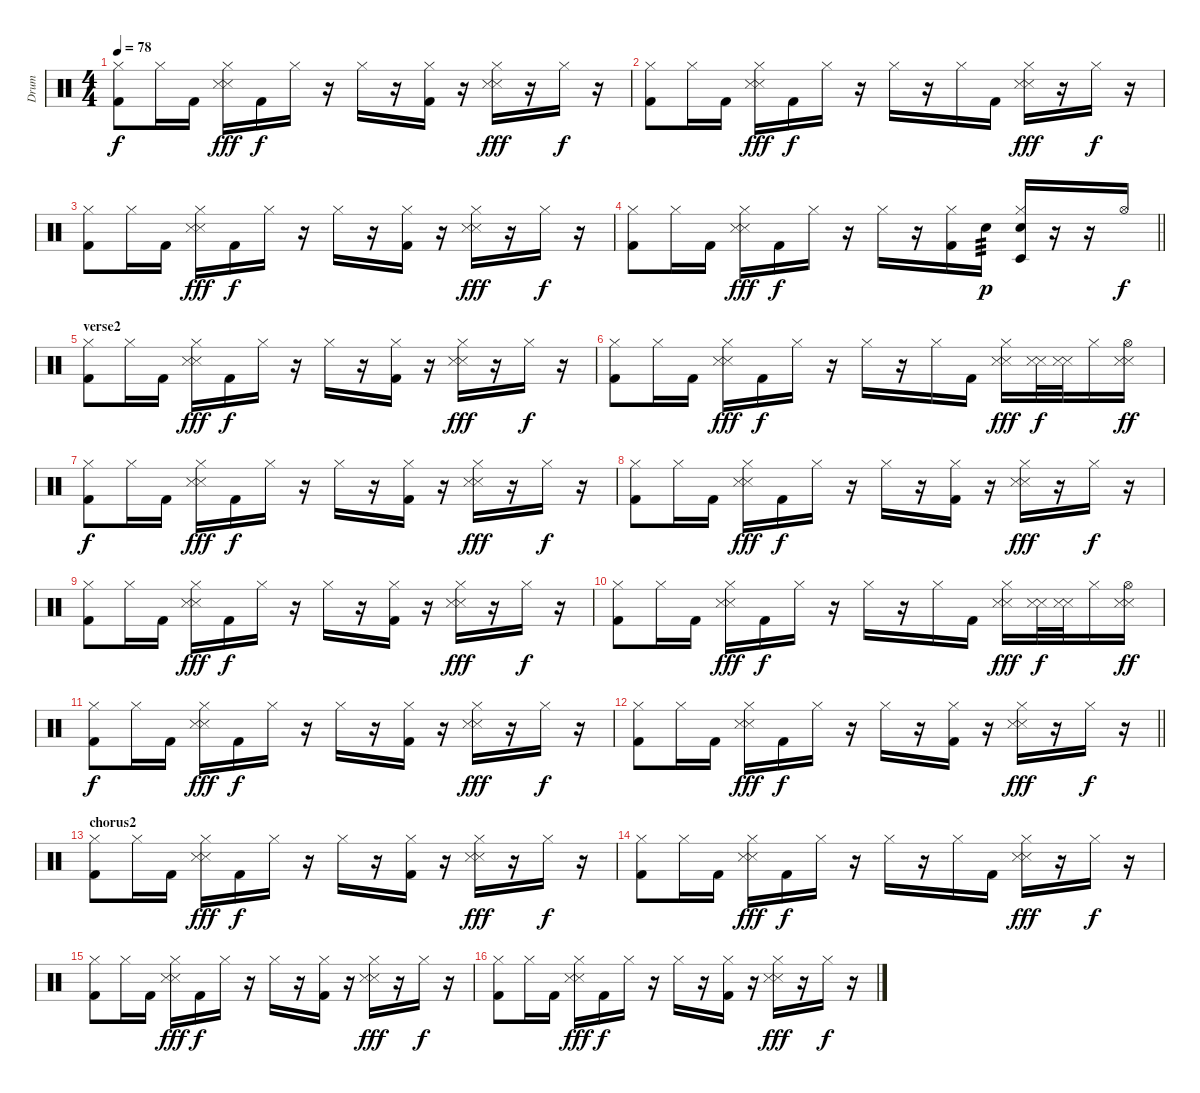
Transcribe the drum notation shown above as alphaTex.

\track ("Drum" "Drum") {instrument percussion}
\staff {score}
\articulation defaults
\ts (4 4)
\tempo 78
\clef neutral
\ks c
("Hi-Hat (closed)" "Kick (hit) 2").8{dy f} "Hi-Hat (closed)".16 "Kick (hit) 2".16 ("Hi-Hat (closed)" "Snare (side stick) 3" "Snare (side stick) 3").16{dy fff} "Kick (hit) 2".16{dy f} "Hi-Hat (closed)".16 r.16 "Hi-Hat (closed)".16 r.16 ("Hi-Hat (closed)" "Kick (hit) 2").16 r.16 ("Hi-Hat (closed)" "Snare (side stick) 3" "Snare (side stick) 3").16{dy fff} r.16 "Hi-Hat (closed)".16{dy f} r.16 |
("Hi-Hat (closed)" "Kick (hit) 2").8 "Hi-Hat (closed)".16 "Kick (hit) 2".16 ("Hi-Hat (closed)" "Snare (side stick) 3" "Snare (side stick) 3").16{dy fff} "Kick (hit) 2".16{dy f} "Hi-Hat (closed)".16 r.16 "Hi-Hat (closed)".16 r.16 "Hi-Hat (closed)".16 "Kick (hit) 2".16 ("Hi-Hat (closed)" "Snare (side stick) 3" "Snare (side stick) 3").16{dy fff} r.16 "Hi-Hat (closed)".16{dy f} r.16 |
("Hi-Hat (closed)" "Kick (hit) 2").8 "Hi-Hat (closed)".16 "Kick (hit) 2".16 ("Hi-Hat (closed)" "Snare (side stick) 3" "Snare (side stick) 3").16{dy fff} "Kick (hit) 2".16{dy f} "Hi-Hat (closed)".16 r.16 "Hi-Hat (closed)".16 r.16 ("Hi-Hat (closed)" "Kick (hit) 2").16 r.16 ("Hi-Hat (closed)" "Snare (side stick) 3" "Snare (side stick) 3").16{dy fff} r.16 "Hi-Hat (closed)".16{dy f} r.16 |
\barLineRight lightlight
("Hi-Hat (closed)" "Kick (hit) 2").8 "Hi-Hat (closed)".16 "Kick (hit) 2".16 ("Hi-Hat (closed)" "Snare (side stick) 3" "Snare (side stick) 3").16{dy fff} "Kick (hit) 2".16{dy f} "Hi-Hat (closed)".16 r.16 "Hi-Hat (closed)".16 r.16 ("Hi-Hat (closed)" "Kick (hit) 2").16 "Snare (hit) 2".16{tp 3 dy p} ("Hi-Hat (closed)" "Timbale low (hit)" "Snare (hit) 2").16 r.16 r.16 "Hi-Hat (open)".16{dy f} |
\section ("" "verse2")
("Hi-Hat (closed)" "Kick (hit) 2").8 "Hi-Hat (closed)".16 "Kick (hit) 2".16 ("Hi-Hat (closed)" "Snare (side stick) 3" "Snare (side stick) 3").16{dy fff} "Kick (hit) 2".16{dy f} "Hi-Hat (closed)".16 r.16 "Hi-Hat (closed)".16 r.16 ("Hi-Hat (closed)" "Kick (hit) 2").16 r.16 ("Hi-Hat (closed)" "Snare (side stick) 3" "Snare (side stick) 3").16{dy fff} r.16 "Hi-Hat (closed)".16{dy f} r.16 |
("Hi-Hat (closed)" "Kick (hit) 2").8 "Hi-Hat (closed)".16 "Kick (hit) 2".16 ("Hi-Hat (closed)" "Snare (side stick) 3" "Snare (side stick) 3").16{dy fff} "Kick (hit) 2".16{dy f} "Hi-Hat (closed)".16 r.16 "Hi-Hat (closed)".16 r.16 "Hi-Hat (closed)".16 "Kick (hit) 2".16 ("Hi-Hat (closed)" "Snare (side stick) 3" "Snare (side stick) 3").16{dy fff} ("Snare (side stick) 3" "Snare (side stick) 3").32{dy f} ("Snare (side stick) 3" "Snare (side stick) 3").32 "Hi-Hat (closed)".16 ("Hi-Hat (open)" "Snare (side stick) 3" "Snare (side stick) 3").16{dy ff} |
("Hi-Hat (closed)" "Kick (hit) 2").8{dy f} "Hi-Hat (closed)".16 "Kick (hit) 2".16 ("Hi-Hat (closed)" "Snare (side stick) 3" "Snare (side stick) 3").16{dy fff} "Kick (hit) 2".16{dy f} "Hi-Hat (closed)".16 r.16 "Hi-Hat (closed)".16 r.16 ("Hi-Hat (closed)" "Kick (hit) 2").16 r.16 ("Hi-Hat (closed)" "Snare (side stick) 3" "Snare (side stick) 3").16{dy fff} r.16 "Hi-Hat (closed)".16{dy f} r.16 |
("Hi-Hat (closed)" "Kick (hit) 2").8 "Hi-Hat (closed)".16 "Kick (hit) 2".16 ("Hi-Hat (closed)" "Snare (side stick) 3" "Snare (side stick) 3").16{dy fff} "Kick (hit) 2".16{dy f} "Hi-Hat (closed)".16 r.16 "Hi-Hat (closed)".16 r.16 ("Hi-Hat (closed)" "Kick (hit) 2").16 r.16 ("Hi-Hat (closed)" "Snare (side stick) 3" "Snare (side stick) 3").16{dy fff} r.16 "Hi-Hat (closed)".16{dy f} r.16 |
("Hi-Hat (closed)" "Kick (hit) 2").8 "Hi-Hat (closed)".16 "Kick (hit) 2".16 ("Hi-Hat (closed)" "Snare (side stick) 3" "Snare (side stick) 3").16{dy fff} "Kick (hit) 2".16{dy f} "Hi-Hat (closed)".16 r.16 "Hi-Hat (closed)".16 r.16 ("Hi-Hat (closed)" "Kick (hit) 2").16 r.16 ("Hi-Hat (closed)" "Snare (side stick) 3" "Snare (side stick) 3").16{dy fff} r.16 "Hi-Hat (closed)".16{dy f} r.16 |
("Hi-Hat (closed)" "Kick (hit) 2").8 "Hi-Hat (closed)".16 "Kick (hit) 2".16 ("Hi-Hat (closed)" "Snare (side stick) 3" "Snare (side stick) 3").16{dy fff} "Kick (hit) 2".16{dy f} "Hi-Hat (closed)".16 r.16 "Hi-Hat (closed)".16 r.16 "Hi-Hat (closed)".16 "Kick (hit) 2".16 ("Hi-Hat (closed)" "Snare (side stick) 3" "Snare (side stick) 3").16{dy fff} ("Snare (side stick) 3" "Snare (side stick) 3").32{dy f} ("Snare (side stick) 3" "Snare (side stick) 3").32 "Hi-Hat (closed)".16 ("Hi-Hat (open)" "Snare (side stick) 3" "Snare (side stick) 3").16{dy ff} |
("Hi-Hat (closed)" "Kick (hit) 2").8{dy f} "Hi-Hat (closed)".16 "Kick (hit) 2".16 ("Hi-Hat (closed)" "Snare (side stick) 3" "Snare (side stick) 3").16{dy fff} "Kick (hit) 2".16{dy f} "Hi-Hat (closed)".16 r.16 "Hi-Hat (closed)".16 r.16 ("Hi-Hat (closed)" "Kick (hit) 2").16 r.16 ("Hi-Hat (closed)" "Snare (side stick) 3" "Snare (side stick) 3").16{dy fff} r.16 "Hi-Hat (closed)".16{dy f} r.16 |
\barLineRight lightlight
("Hi-Hat (closed)" "Kick (hit) 2").8 "Hi-Hat (closed)".16 "Kick (hit) 2".16 ("Hi-Hat (closed)" "Snare (side stick) 3" "Snare (side stick) 3").16{dy fff} "Kick (hit) 2".16{dy f} "Hi-Hat (closed)".16 r.16 "Hi-Hat (closed)".16 r.16 ("Hi-Hat (closed)" "Kick (hit) 2").16 r.16 ("Hi-Hat (closed)" "Snare (side stick) 3" "Snare (side stick) 3").16{dy fff} r.16 "Hi-Hat (closed)".16{dy f} r.16 |
\section ("" "chorus2")
("Hi-Hat (closed)" "Kick (hit) 2").8 "Hi-Hat (closed)".16 "Kick (hit) 2".16 ("Hi-Hat (closed)" "Snare (side stick) 3" "Snare (side stick) 3").16{dy fff} "Kick (hit) 2".16{dy f} "Hi-Hat (closed)".16 r.16 "Hi-Hat (closed)".16 r.16 ("Hi-Hat (closed)" "Kick (hit) 2").16 r.16 ("Hi-Hat (closed)" "Snare (side stick) 3" "Snare (side stick) 3").16{dy fff} r.16 "Hi-Hat (closed)".16{dy f} r.16 |
("Hi-Hat (closed)" "Kick (hit) 2").8 "Hi-Hat (closed)".16 "Kick (hit) 2".16 ("Hi-Hat (closed)" "Snare (side stick) 3" "Snare (side stick) 3").16{dy fff} "Kick (hit) 2".16{dy f} "Hi-Hat (closed)".16 r.16 "Hi-Hat (closed)".16 r.16 "Hi-Hat (closed)".16 "Kick (hit) 2".16 ("Hi-Hat (closed)" "Snare (side stick) 3" "Snare (side stick) 3").16{dy fff} r.16 "Hi-Hat (closed)".16{dy f} r.16 |
("Hi-Hat (closed)" "Kick (hit) 2").8 "Hi-Hat (closed)".16 "Kick (hit) 2".16 ("Hi-Hat (closed)" "Snare (side stick) 3" "Snare (side stick) 3").16{dy fff} "Kick (hit) 2".16{dy f} "Hi-Hat (closed)".16 r.16 "Hi-Hat (closed)".16 r.16 ("Hi-Hat (closed)" "Kick (hit) 2").16 r.16 ("Hi-Hat (closed)" "Snare (side stick) 3" "Snare (side stick) 3").16{dy fff} r.16 "Hi-Hat (closed)".16{dy f} r.16 |
("Hi-Hat (closed)" "Kick (hit) 2").8 "Hi-Hat (closed)".16 "Kick (hit) 2".16 ("Hi-Hat (closed)" "Snare (side stick) 3" "Snare (side stick) 3").16{dy fff} "Kick (hit) 2".16{dy f} "Hi-Hat (closed)".16 r.16 "Hi-Hat (closed)".16 r.16 ("Hi-Hat (closed)" "Kick (hit) 2").16 r.16 ("Hi-Hat (closed)" "Snare (side stick) 3" "Snare (side stick) 3").16{dy fff} r.16 "Hi-Hat (closed)".16{dy f} r.16
